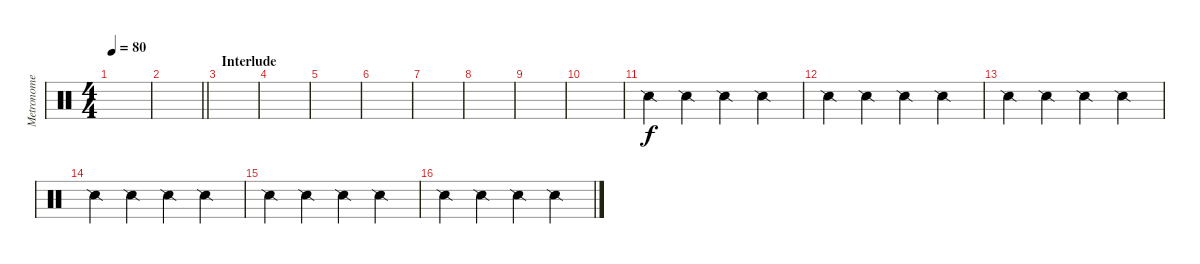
\track ("Metronome" "Metronome") {instrument percussion}
\staff {score}
\articulation defaults
\ts (4 4)
\tempo 80
\clef neutral
\ks c
|
\barLineRight lightlight
|
\section ("" "Interlude")
|
|
|
|
|
|
|
|
"Snare (side stick) 2".4 "Snare (side stick) 2".4 "Snare (side stick) 2".4 "Snare (side stick) 2".4 |
"Snare (side stick) 2".4 "Snare (side stick) 2".4 "Snare (side stick) 2".4 "Snare (side stick) 2".4 |
"Snare (side stick) 2".4 "Snare (side stick) 2".4 "Snare (side stick) 2".4 "Snare (side stick) 2".4 |
"Snare (side stick) 2".4 "Snare (side stick) 2".4 "Snare (side stick) 2".4 "Snare (side stick) 2".4 |
"Snare (side stick) 2".4 "Snare (side stick) 2".4 "Snare (side stick) 2".4 "Snare (side stick) 2".4 |
"Snare (side stick) 2".4 "Snare (side stick) 2".4 "Snare (side stick) 2".4 "Snare (side stick) 2".4
